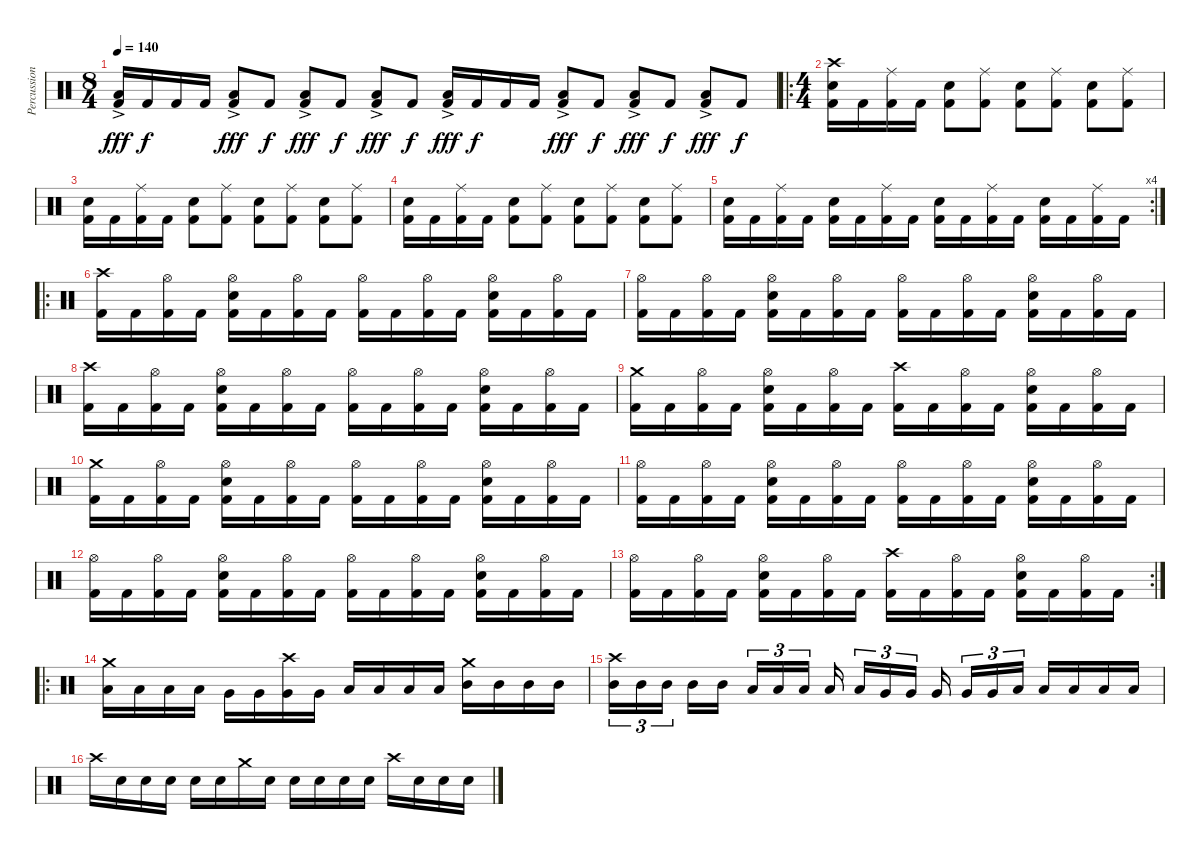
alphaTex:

\track ("Percussion" "Percussion") {instrument percussion}
\staff {score}
\articulation defaults
\ts (8 4)
\tempo 140
\clef neutral
\ks c
("Low Floor Tom (hit)"{ac} "Kick (hit) 2").16{dy fff} "Kick (hit) 2".16{dy f} "Kick (hit) 2".16 "Kick (hit) 2".16 ("Low Floor Tom (hit)"{ac} "Kick (hit) 2").8{dy fff} "Kick (hit) 2".8{dy f} ("Low Floor Tom (hit)"{ac} "Kick (hit) 2").8{dy fff} "Kick (hit) 2".8{dy f} ("Low Floor Tom (hit)"{ac} "Kick (hit) 2").8{dy fff} "Kick (hit) 2".8{dy f} ("Low Floor Tom (hit)"{ac} "Kick (hit) 2").16{dy fff} "Kick (hit) 2".16{dy f} "Kick (hit) 2".16 "Kick (hit) 2".16 ("Low Floor Tom (hit)"{ac} "Kick (hit) 2").8{dy fff} "Kick (hit) 2".8{dy f} ("Low Floor Tom (hit)"{ac} "Kick (hit) 2").8{dy fff} "Kick (hit) 2".8{dy f} ("Low Floor Tom (hit)"{ac} "Kick (hit) 2").8{dy fff} "Kick (hit) 2".8{dy f} |
\ro
\ts (4 4)
("Crash high (hit)" "Snare (hit) 2" "Kick (hit) 2").16 "Kick (hit) 2".16 ("Ride (middle)" "Kick (hit) 2").16 "Kick (hit) 2".16 ("Snare (hit) 2" "Kick (hit) 2").8 ("Ride (middle)" "Kick (hit) 2").8 ("Snare (hit) 2" "Kick (hit) 2").8 ("Ride (middle)" "Kick (hit) 2").8 ("Snare (hit) 2" "Kick (hit) 2").8 ("Ride (middle)" "Kick (hit) 2").8 |
("Snare (hit) 2" "Kick (hit) 2").16 "Kick (hit) 2".16 ("Ride (middle)" "Kick (hit) 2").16 "Kick (hit) 2".16 ("Snare (hit) 2" "Kick (hit) 2").8 ("Ride (middle)" "Kick (hit) 2").8 ("Snare (hit) 2" "Kick (hit) 2").8 ("Ride (middle)" "Kick (hit) 2").8 ("Snare (hit) 2" "Kick (hit) 2").8 ("Ride (middle)" "Kick (hit) 2").8 |
("Snare (hit) 2" "Kick (hit) 2").16 "Kick (hit) 2".16 ("Ride (middle)" "Kick (hit) 2").16 "Kick (hit) 2".16 ("Snare (hit) 2" "Kick (hit) 2").8 ("Ride (middle)" "Kick (hit) 2").8 ("Snare (hit) 2" "Kick (hit) 2").8 ("Ride (middle)" "Kick (hit) 2").8 ("Snare (hit) 2" "Kick (hit) 2").8 ("Ride (middle)" "Kick (hit) 2").8 |
\rc 4
("Snare (hit) 2" "Kick (hit) 2").16 "Kick (hit) 2".16 ("Ride (middle)" "Kick (hit) 2").16 "Kick (hit) 2".16 ("Snare (hit) 2" "Kick (hit) 2").16 "Kick (hit) 2".16 ("Ride (middle)" "Kick (hit) 2").16 "Kick (hit) 2".16 ("Snare (hit) 2" "Kick (hit) 2").16 "Kick (hit) 2".16 ("Ride (middle)" "Kick (hit) 2").16 "Kick (hit) 2".16 ("Snare (hit) 2" "Kick (hit) 2").16 "Kick (hit) 2".16 ("Ride (middle)" "Kick (hit) 2").16 "Kick (hit) 2".16 |
\ro
("Crash high (hit)" "Kick (hit) 2").16 "Kick (hit) 2".16 ("Hi-Hat (open)" "Kick (hit) 2").16 "Kick (hit) 2".16 ("Hi-Hat (open)" "Snare (hit) 2" "Kick (hit) 2").16 "Kick (hit) 2".16 ("Hi-Hat (open)" "Kick (hit) 2").16 "Kick (hit) 2".16 ("Hi-Hat (open)" "Kick (hit) 2").16 "Kick (hit) 2".16 ("Hi-Hat (open)" "Kick (hit) 2").16 "Kick (hit) 2".16 ("Hi-Hat (open)" "Snare (hit) 2" "Kick (hit) 2").16 "Kick (hit) 2".16 ("Hi-Hat (open)" "Kick (hit) 2").16 "Kick (hit) 2".16 |
("Hi-Hat (open)" "Kick (hit) 2").16 "Kick (hit) 2".16 ("Hi-Hat (open)" "Kick (hit) 2").16 "Kick (hit) 2".16 ("Hi-Hat (open)" "Snare (hit) 2" "Kick (hit) 2").16 "Kick (hit) 2".16 ("Hi-Hat (open)" "Kick (hit) 2").16 "Kick (hit) 2".16 ("Hi-Hat (open)" "Kick (hit) 2").16 "Kick (hit) 2".16 ("Hi-Hat (open)" "Kick (hit) 2").16 "Kick (hit) 2".16 ("Hi-Hat (open)" "Snare (hit) 2" "Kick (hit) 2").16 "Kick (hit) 2".16 ("Hi-Hat (open)" "Kick (hit) 2").16 "Kick (hit) 2".16 |
("Crash high (hit)" "Kick (hit) 2").16 "Kick (hit) 2".16 ("Hi-Hat (open)" "Kick (hit) 2").16 "Kick (hit) 2".16 ("Hi-Hat (open)" "Snare (hit) 2" "Kick (hit) 2").16 "Kick (hit) 2".16 ("Hi-Hat (open)" "Kick (hit) 2").16 "Kick (hit) 2".16 ("Hi-Hat (open)" "Kick (hit) 2").16 "Kick (hit) 2".16 ("Hi-Hat (open)" "Kick (hit) 2").16 "Kick (hit) 2".16 ("Hi-Hat (open)" "Snare (hit) 2" "Kick (hit) 2").16 "Kick (hit) 2".16 ("Hi-Hat (open)" "Kick (hit) 2").16 "Kick (hit) 2".16 |
("Crash medium (hit)" "Kick (hit) 2").16 "Kick (hit) 2".16 ("Hi-Hat (open)" "Kick (hit) 2").16 "Kick (hit) 2".16 ("Hi-Hat (open)" "Snare (hit) 2" "Kick (hit) 2").16 "Kick (hit) 2".16 ("Hi-Hat (open)" "Kick (hit) 2").16 "Kick (hit) 2".16 ("Crash high (hit)" "Kick (hit) 2").16 "Kick (hit) 2".16 ("Hi-Hat (open)" "Kick (hit) 2").16 "Kick (hit) 2".16 ("Hi-Hat (open)" "Snare (hit) 2" "Kick (hit) 2").16 "Kick (hit) 2".16 ("Hi-Hat (open)" "Kick (hit) 2").16 "Kick (hit) 2".16 |
("Crash medium (hit)" "Kick (hit) 2").16 "Kick (hit) 2".16 ("Hi-Hat (open)" "Kick (hit) 2").16 "Kick (hit) 2".16 ("Hi-Hat (open)" "Snare (hit) 2" "Kick (hit) 2").16 "Kick (hit) 2".16 ("Hi-Hat (open)" "Kick (hit) 2").16 "Kick (hit) 2".16 ("Hi-Hat (open)" "Kick (hit) 2").16 "Kick (hit) 2".16 ("Hi-Hat (open)" "Kick (hit) 2").16 "Kick (hit) 2".16 ("Hi-Hat (open)" "Snare (hit) 2" "Kick (hit) 2").16 "Kick (hit) 2".16 ("Hi-Hat (open)" "Kick (hit) 2").16 "Kick (hit) 2".16 |
("Hi-Hat (open)" "Kick (hit) 2").16 "Kick (hit) 2".16 ("Hi-Hat (open)" "Kick (hit) 2").16 "Kick (hit) 2".16 ("Hi-Hat (open)" "Snare (hit) 2" "Kick (hit) 2").16 "Kick (hit) 2".16 ("Hi-Hat (open)" "Kick (hit) 2").16 "Kick (hit) 2".16 ("Hi-Hat (open)" "Kick (hit) 2").16 "Kick (hit) 2".16 ("Hi-Hat (open)" "Kick (hit) 2").16 "Kick (hit) 2".16 ("Hi-Hat (open)" "Snare (hit) 2" "Kick (hit) 2").16 "Kick (hit) 2".16 ("Hi-Hat (open)" "Kick (hit) 2").16 "Kick (hit) 2".16 |
("Hi-Hat (open)" "Kick (hit) 2").16 "Kick (hit) 2".16 ("Hi-Hat (open)" "Kick (hit) 2").16 "Kick (hit) 2".16 ("Hi-Hat (open)" "Snare (hit) 2" "Kick (hit) 2").16 "Kick (hit) 2".16 ("Hi-Hat (open)" "Kick (hit) 2").16 "Kick (hit) 2".16 ("Hi-Hat (open)" "Kick (hit) 2").16 "Kick (hit) 2".16 ("Hi-Hat (open)" "Kick (hit) 2").16 "Kick (hit) 2".16 ("Hi-Hat (open)" "Snare (hit) 2" "Kick (hit) 2").16 "Kick (hit) 2".16 ("Hi-Hat (open)" "Kick (hit) 2").16 "Kick (hit) 2".16 |
\rc 2
("Hi-Hat (open)" "Kick (hit) 2").16 "Kick (hit) 2".16 ("Hi-Hat (open)" "Kick (hit) 2").16 "Kick (hit) 2".16 ("Hi-Hat (open)" "Snare (hit) 2" "Kick (hit) 2").16 "Kick (hit) 2".16 ("Hi-Hat (open)" "Kick (hit) 2").16 "Kick (hit) 2".16 ("Crash high (hit)" "Kick (hit) 2").16 "Kick (hit) 2".16 ("Hi-Hat (open)" "Kick (hit) 2").16 "Kick (hit) 2".16 ("Hi-Hat (open)" "Snare (hit) 2" "Kick (hit) 2").16 "Kick (hit) 2".16 ("Hi-Hat (open)" "Kick (hit) 2").16 "Kick (hit) 2".16 |
\ro
("Crash medium (hit)" "Low Floor Tom (hit)").16 "Low Floor Tom (hit)".16 "Low Floor Tom (hit)".16 "Low Floor Tom (hit)".16 "Very Low Tom (hit)".16 "Very Low Tom (hit)".16 ("Crash high (hit)" "Very Low Tom (hit)").16 "Very Low Tom (hit)".16 "Low Tom (hit)".16 "Low Tom (hit)".16 "Low Tom (hit)".16 "Low Tom (hit)".16 ("Crash medium (hit)" "Mid Tom (hit)").16 "Mid Tom (hit)".16 "Mid Tom (hit)".16 "Mid Tom (hit)".16 |
("Crash high (hit)" "Mid Tom (hit)").16{tu (3 2)} "Mid Tom (hit)".16{tu (3 2)} "Mid Tom (hit)".16{tu (3 2)} "Mid Tom (hit)".16 "Mid Tom (hit)".16 "Low Tom (hit)".16{tu (3 2)} "Low Tom (hit)".16{tu (3 2)} "Low Tom (hit)".16{tu (3 2)} "Low Tom (hit)".16 "Low Tom (hit)".16{tu (3 2)} "Very Low Tom (hit)".16{tu (3 2)} "Very Low Tom (hit)".16{tu (3 2)} "Very Low Tom (hit)".16 "Very Low Tom (hit)".16{tu (3 2)} "Very Low Tom (hit)".16{tu (3 2)} "Low Floor Tom (hit)".16{tu (3 2)} "Low Floor Tom (hit)".16 "Low Floor Tom (hit)".16 "Low Floor Tom (hit)".16 "Low Floor Tom (hit)".16 |
"Crash high (hit)".16 "Snare (hit) 2".16 "Snare (hit) 2".16 "Snare (hit) 2".16 "Snare (hit) 2".16 "Snare (hit) 2".16 "Crash medium (hit)".16 "Snare (hit) 2".16 "Snare (hit) 2".16 "Snare (hit) 2".16 "Snare (hit) 2".16 "Snare (hit) 2".16 "Crash high (hit)".16 "Snare (hit) 2".16 "Snare (hit) 2".16 "Snare (hit) 2".16
